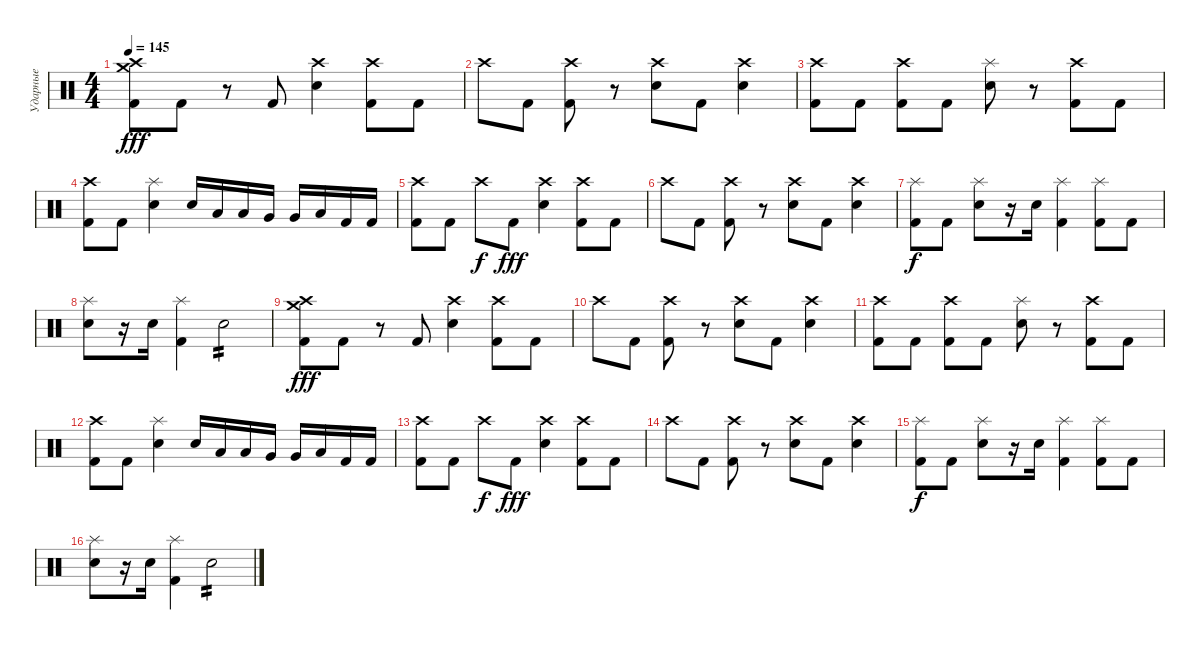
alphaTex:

\track ("Ударные" "Ударные") {instrument percussion}
\staff {score}
\articulation defaults
\ts (4 4)
\tempo 145
\clef neutral
\ks c
("Kick (hit) 2" "Crash medium (hit)" "Crash high (hit)").8{dy fff} "Kick (hit) 2".8 r.8 "Kick (hit) 2".8 ("Snare (hit) 2" "Crash high (hit)").4 ("Kick (hit) 2" "Crash high (hit)").8 "Kick (hit) 2".8 |
"Crash high (hit)".8 "Kick (hit) 2".8 ("Kick (hit) 2" "Crash high (hit)").8 r.8 ("Snare (hit) 2" "Crash high (hit)").8 "Kick (hit) 2".8 ("Snare (hit) 2" "Crash high (hit)").4 |
("Kick (hit) 2" "Crash high (hit)").8 "Kick (hit) 2".8 ("Kick (hit) 2" "Crash high (hit)").8 "Kick (hit) 2".8 ("Snare (hit) 2" "Splash (hit)").8 r.8 ("Kick (hit) 2" "Crash high (hit)").8 "Kick (hit) 2".8 |
("Kick (hit) 2" "Crash high (hit)").8 "Kick (hit) 2".8 ("Snare (hit) 2" "Splash (hit)").4 "Snare (hit) 2".16 "Low Tom (hit)".16 "Low Tom (hit)".16 "Very Low Tom (hit)".16 "Very Low Tom (hit)".16 "Low Floor Tom (hit)".16 "Kick (hit) 2".16 "Kick (hit) 2".16 |
("Kick (hit) 2" "Crash high (hit)").8 "Kick (hit) 2".8 "Crash high (hit)".8{dy f} "Kick (hit) 2".8{dy fff} ("Snare (hit) 2" "Crash high (hit)").4 ("Kick (hit) 2" "Crash high (hit)").8 "Kick (hit) 2".8 |
"Crash high (hit)".8 "Kick (hit) 2".8 ("Kick (hit) 2" "Crash high (hit)").8 r.8 ("Snare (hit) 2" "Crash high (hit)").8 "Kick (hit) 2".8 ("Snare (hit) 2" "Crash high (hit)").4 |
("Kick (hit) 2" "Splash (hit)").8{dy f} "Kick (hit) 2".8 ("Snare (hit) 2" "Splash (hit)").8 r.16 "Snare (hit) 2".16 ("Kick (hit) 2" "Splash (hit)").4 ("Kick (hit) 2" "Splash (hit)").8 "Kick (hit) 2".8 |
("Snare (hit) 2" "Splash (hit)").8 r.16 "Snare (hit) 2".16 ("Kick (hit) 2" "Splash (hit)").4 "Electric Snare (hit)".2{tp 2} |
("Kick (hit) 2" "Crash medium (hit)" "Crash high (hit)").8{dy fff} "Kick (hit) 2".8 r.8 "Kick (hit) 2".8 ("Snare (hit) 2" "Crash high (hit)").4 ("Kick (hit) 2" "Crash high (hit)").8 "Kick (hit) 2".8 |
"Crash high (hit)".8 "Kick (hit) 2".8 ("Kick (hit) 2" "Crash high (hit)").8 r.8 ("Snare (hit) 2" "Crash high (hit)").8 "Kick (hit) 2".8 ("Snare (hit) 2" "Crash high (hit)").4 |
("Kick (hit) 2" "Crash high (hit)").8 "Kick (hit) 2".8 ("Kick (hit) 2" "Crash high (hit)").8 "Kick (hit) 2".8 ("Snare (hit) 2" "Splash (hit)").8 r.8 ("Kick (hit) 2" "Crash high (hit)").8 "Kick (hit) 2".8 |
("Kick (hit) 2" "Crash high (hit)").8 "Kick (hit) 2".8 ("Snare (hit) 2" "Splash (hit)").4 "Snare (hit) 2".16 "Low Tom (hit)".16 "Low Tom (hit)".16 "Very Low Tom (hit)".16 "Very Low Tom (hit)".16 "Low Floor Tom (hit)".16 "Kick (hit) 2".16 "Kick (hit) 2".16 |
("Kick (hit) 2" "Crash high (hit)").8 "Kick (hit) 2".8 "Crash high (hit)".8{dy f} "Kick (hit) 2".8{dy fff} ("Snare (hit) 2" "Crash high (hit)").4 ("Kick (hit) 2" "Crash high (hit)").8 "Kick (hit) 2".8 |
"Crash high (hit)".8 "Kick (hit) 2".8 ("Kick (hit) 2" "Crash high (hit)").8 r.8 ("Snare (hit) 2" "Crash high (hit)").8 "Kick (hit) 2".8 ("Snare (hit) 2" "Crash high (hit)").4 |
("Kick (hit) 2" "Splash (hit)").8{dy f} "Kick (hit) 2".8 ("Snare (hit) 2" "Splash (hit)").8 r.16 "Snare (hit) 2".16 ("Kick (hit) 2" "Splash (hit)").4 ("Kick (hit) 2" "Splash (hit)").8 "Kick (hit) 2".8 |
("Snare (hit) 2" "Splash (hit)").8 r.16 "Snare (hit) 2".16 ("Kick (hit) 2" "Splash (hit)").4 "Electric Snare (hit)".2{tp 2}
